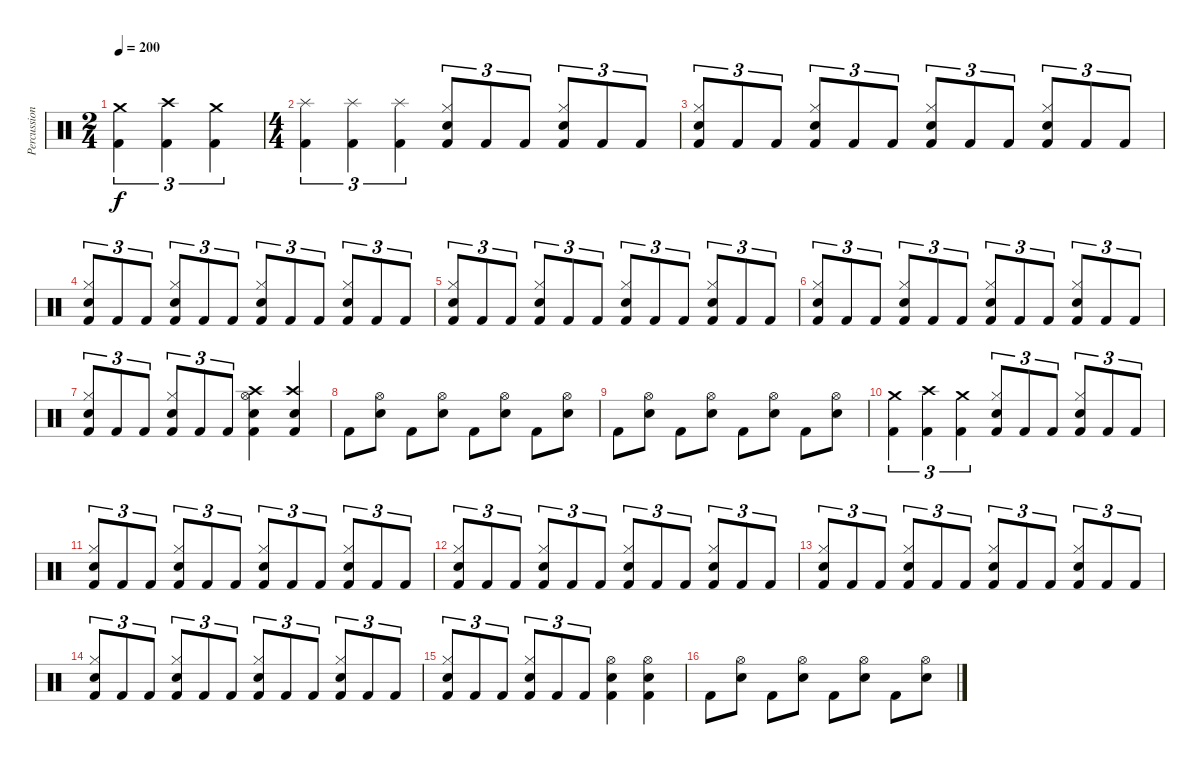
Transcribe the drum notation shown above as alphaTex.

\track ("Percussion" "Percussion") {instrument percussion}
\staff {score}
\articulation defaults
\ts (2 4)
\tempo 200
\clef neutral
\ks c
("Crash medium (hit)" "Kick (hit) 2").4{tu (3 2) dy f} ("Crash high (hit)" "Kick (hit) 2").4{tu (3 2)} ("Crash medium (hit)" "Kick (hit) 2").4{tu (3 2)} |
\ts (4 4)
("Splash (hit)" "Kick (hit) 2").4{tu (3 2)} ("Splash (hit)" "Kick (hit) 2").4{tu (3 2)} ("Splash (hit)" "Kick (hit) 2").4{tu (3 2)} ("Hi-Hat (closed)" "Snare (hit) 2" "Kick (hit) 2").8{tu (3 2)} "Kick (hit) 2".8{tu (3 2)} "Kick (hit) 2".8{tu (3 2)} ("Hi-Hat (closed)" "Snare (hit) 2" "Kick (hit) 2").8{tu (3 2)} "Kick (hit) 2".8{tu (3 2)} "Kick (hit) 2".8{tu (3 2)} |
("Hi-Hat (closed)" "Snare (hit) 2" "Kick (hit) 2").8{tu (3 2)} "Kick (hit) 2".8{tu (3 2)} "Kick (hit) 2".8{tu (3 2)} ("Hi-Hat (closed)" "Snare (hit) 2" "Kick (hit) 2").8{tu (3 2)} "Kick (hit) 2".8{tu (3 2)} "Kick (hit) 2".8{tu (3 2)} ("Hi-Hat (closed)" "Snare (hit) 2" "Kick (hit) 2").8{tu (3 2)} "Kick (hit) 2".8{tu (3 2)} "Kick (hit) 2".8{tu (3 2)} ("Hi-Hat (closed)" "Snare (hit) 2" "Kick (hit) 2").8{tu (3 2)} "Kick (hit) 2".8{tu (3 2)} "Kick (hit) 2".8{tu (3 2)} |
("Hi-Hat (closed)" "Snare (hit) 2" "Kick (hit) 2").8{tu (3 2)} "Kick (hit) 2".8{tu (3 2)} "Kick (hit) 2".8{tu (3 2)} ("Hi-Hat (closed)" "Snare (hit) 2" "Kick (hit) 2").8{tu (3 2)} "Kick (hit) 2".8{tu (3 2)} "Kick (hit) 2".8{tu (3 2)} ("Hi-Hat (closed)" "Snare (hit) 2" "Kick (hit) 2").8{tu (3 2)} "Kick (hit) 2".8{tu (3 2)} "Kick (hit) 2".8{tu (3 2)} ("Hi-Hat (closed)" "Snare (hit) 2" "Kick (hit) 2").8{tu (3 2)} "Kick (hit) 2".8{tu (3 2)} "Kick (hit) 2".8{tu (3 2)} |
("Hi-Hat (closed)" "Snare (hit) 2" "Kick (hit) 2").8{tu (3 2)} "Kick (hit) 2".8{tu (3 2)} "Kick (hit) 2".8{tu (3 2)} ("Hi-Hat (closed)" "Snare (hit) 2" "Kick (hit) 2").8{tu (3 2)} "Kick (hit) 2".8{tu (3 2)} "Kick (hit) 2".8{tu (3 2)} ("Hi-Hat (closed)" "Snare (hit) 2" "Kick (hit) 2").8{tu (3 2)} "Kick (hit) 2".8{tu (3 2)} "Kick (hit) 2".8{tu (3 2)} ("Hi-Hat (closed)" "Snare (hit) 2" "Kick (hit) 2").8{tu (3 2)} "Kick (hit) 2".8{tu (3 2)} "Kick (hit) 2".8{tu (3 2)} |
("Hi-Hat (closed)" "Snare (hit) 2" "Kick (hit) 2").8{tu (3 2)} "Kick (hit) 2".8{tu (3 2)} "Kick (hit) 2".8{tu (3 2)} ("Hi-Hat (closed)" "Snare (hit) 2" "Kick (hit) 2").8{tu (3 2)} "Kick (hit) 2".8{tu (3 2)} "Kick (hit) 2".8{tu (3 2)} ("Hi-Hat (closed)" "Snare (hit) 2" "Kick (hit) 2").8{tu (3 2)} "Kick (hit) 2".8{tu (3 2)} "Kick (hit) 2".8{tu (3 2)} ("Hi-Hat (closed)" "Snare (hit) 2" "Kick (hit) 2").8{tu (3 2)} "Kick (hit) 2".8{tu (3 2)} "Kick (hit) 2".8{tu (3 2)} |
("Hi-Hat (closed)" "Snare (hit) 2" "Kick (hit) 2").8{tu (3 2)} "Kick (hit) 2".8{tu (3 2)} "Kick (hit) 2".8{tu (3 2)} ("Hi-Hat (closed)" "Snare (hit) 2" "Kick (hit) 2").8{tu (3 2)} "Kick (hit) 2".8{tu (3 2)} "Kick (hit) 2".8{tu (3 2)} ("Hi-Hat (open)" "Crash high (hit)" "Snare (hit) 2" "Kick (hit) 2").4 ("Crash high (hit)" "Snare (hit) 2" "Kick (hit) 2").4 |
"Kick (hit) 2".8 ("Hi-Hat (open)" "Snare (hit) 2").8 "Kick (hit) 2".8 ("Hi-Hat (open)" "Snare (hit) 2").8 "Kick (hit) 2".8 ("Hi-Hat (open)" "Snare (hit) 2").8 "Kick (hit) 2".8 ("Hi-Hat (open)" "Snare (hit) 2").8 |
"Kick (hit) 2".8 ("Hi-Hat (open)" "Snare (hit) 2").8 "Kick (hit) 2".8 ("Hi-Hat (open)" "Snare (hit) 2").8 "Kick (hit) 2".8 ("Hi-Hat (open)" "Snare (hit) 2").8 "Kick (hit) 2".8 ("Hi-Hat (open)" "Snare (hit) 2").8 |
("Crash medium (hit)" "Kick (hit) 2").4{tu (3 2)} ("Crash high (hit)" "Kick (hit) 2").4{tu (3 2)} ("Crash medium (hit)" "Kick (hit) 2").4{tu (3 2)} ("Hi-Hat (closed)" "Snare (hit) 2" "Kick (hit) 2").8{tu (3 2)} "Kick (hit) 2".8{tu (3 2)} "Kick (hit) 2".8{tu (3 2)} ("Hi-Hat (closed)" "Snare (hit) 2" "Kick (hit) 2").8{tu (3 2)} "Kick (hit) 2".8{tu (3 2)} "Kick (hit) 2".8{tu (3 2)} |
("Hi-Hat (closed)" "Snare (hit) 2" "Kick (hit) 2").8{tu (3 2)} "Kick (hit) 2".8{tu (3 2)} "Kick (hit) 2".8{tu (3 2)} ("Hi-Hat (closed)" "Snare (hit) 2" "Kick (hit) 2").8{tu (3 2)} "Kick (hit) 2".8{tu (3 2)} "Kick (hit) 2".8{tu (3 2)} ("Hi-Hat (closed)" "Snare (hit) 2" "Kick (hit) 2").8{tu (3 2)} "Kick (hit) 2".8{tu (3 2)} "Kick (hit) 2".8{tu (3 2)} ("Hi-Hat (closed)" "Snare (hit) 2" "Kick (hit) 2").8{tu (3 2)} "Kick (hit) 2".8{tu (3 2)} "Kick (hit) 2".8{tu (3 2)} |
("Hi-Hat (closed)" "Snare (hit) 2" "Kick (hit) 2").8{tu (3 2)} "Kick (hit) 2".8{tu (3 2)} "Kick (hit) 2".8{tu (3 2)} ("Hi-Hat (closed)" "Snare (hit) 2" "Kick (hit) 2").8{tu (3 2)} "Kick (hit) 2".8{tu (3 2)} "Kick (hit) 2".8{tu (3 2)} ("Hi-Hat (closed)" "Snare (hit) 2" "Kick (hit) 2").8{tu (3 2)} "Kick (hit) 2".8{tu (3 2)} "Kick (hit) 2".8{tu (3 2)} ("Hi-Hat (closed)" "Snare (hit) 2" "Kick (hit) 2").8{tu (3 2)} "Kick (hit) 2".8{tu (3 2)} "Kick (hit) 2".8{tu (3 2)} |
("Hi-Hat (closed)" "Snare (hit) 2" "Kick (hit) 2").8{tu (3 2)} "Kick (hit) 2".8{tu (3 2)} "Kick (hit) 2".8{tu (3 2)} ("Hi-Hat (closed)" "Snare (hit) 2" "Kick (hit) 2").8{tu (3 2)} "Kick (hit) 2".8{tu (3 2)} "Kick (hit) 2".8{tu (3 2)} ("Hi-Hat (closed)" "Snare (hit) 2" "Kick (hit) 2").8{tu (3 2)} "Kick (hit) 2".8{tu (3 2)} "Kick (hit) 2".8{tu (3 2)} ("Hi-Hat (closed)" "Snare (hit) 2" "Kick (hit) 2").8{tu (3 2)} "Kick (hit) 2".8{tu (3 2)} "Kick (hit) 2".8{tu (3 2)} |
("Hi-Hat (closed)" "Snare (hit) 2" "Kick (hit) 2").8{tu (3 2)} "Kick (hit) 2".8{tu (3 2)} "Kick (hit) 2".8{tu (3 2)} ("Hi-Hat (closed)" "Snare (hit) 2" "Kick (hit) 2").8{tu (3 2)} "Kick (hit) 2".8{tu (3 2)} "Kick (hit) 2".8{tu (3 2)} ("Hi-Hat (closed)" "Snare (hit) 2" "Kick (hit) 2").8{tu (3 2)} "Kick (hit) 2".8{tu (3 2)} "Kick (hit) 2".8{tu (3 2)} ("Hi-Hat (closed)" "Snare (hit) 2" "Kick (hit) 2").8{tu (3 2)} "Kick (hit) 2".8{tu (3 2)} "Kick (hit) 2".8{tu (3 2)} |
("Hi-Hat (closed)" "Snare (hit) 2" "Kick (hit) 2").8{tu (3 2)} "Kick (hit) 2".8{tu (3 2)} "Kick (hit) 2".8{tu (3 2)} ("Hi-Hat (closed)" "Snare (hit) 2" "Kick (hit) 2").8{tu (3 2)} "Kick (hit) 2".8{tu (3 2)} "Kick (hit) 2".8{tu (3 2)} ("Hi-Hat (open)" "Snare (hit) 2" "Kick (hit) 2").4 ("Hi-Hat (open)" "Snare (hit) 2" "Kick (hit) 2").4 |
"Kick (hit) 2".8 ("Hi-Hat (open)" "Snare (hit) 2").8 "Kick (hit) 2".8 ("Hi-Hat (open)" "Snare (hit) 2").8 "Kick (hit) 2".8 ("Hi-Hat (open)" "Snare (hit) 2").8 "Kick (hit) 2".8 ("Hi-Hat (open)" "Snare (hit) 2").8
